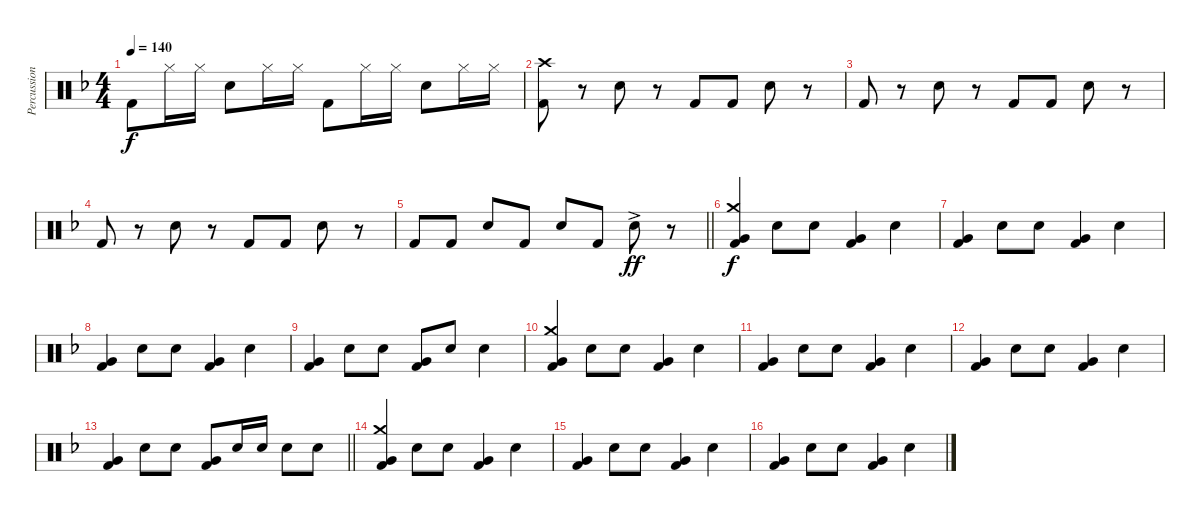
\track ("Percussion" "Percussion") {instrument percussion}
\staff {score}
\articulation defaults
\ts (4 4)
\tempo 140
\clef neutral
\ks dminor "Kick (hit) 2".8{dy f} "Hi-Hat (closed)".16 "Hi-Hat (closed)".16 "Snare (hit) 2".8 "Hi-Hat (closed)".16 "Hi-Hat (closed)".16 "Kick (hit) 2".8 "Hi-Hat (closed)".16 "Hi-Hat (closed)".16 "Snare (hit) 2".8 "Hi-Hat (closed)".16 "Hi-Hat (closed)".16
|
("Crash high (hit)" "Kick (hit) 2").8 r.8 "Snare (hit) 2".8 r.8 "Kick (hit) 2".8 "Kick (hit) 2".8 "Snare (hit) 2".8 r.8 |
"Kick (hit) 2".8 r.8 "Snare (hit) 2".8 r.8 "Kick (hit) 2".8 "Kick (hit) 2".8 "Snare (hit) 2".8 r.8 |
"Kick (hit) 2".8 r.8 "Snare (hit) 2".8 r.8 "Kick (hit) 2".8 "Kick (hit) 2".8 "Snare (hit) 2".8 r.8 |
\barLineRight lightlight "Kick (hit) 2".8 "Kick (hit) 2".8 "Snare (hit) 2".8 "Kick (hit) 2".8 "Snare (hit) 2".8 "Kick (hit) 2".8 "Snare (hit) 2"{ac}.8{dy ff}
r.8 |
("Crash medium (hit)" "Very Low Tom (hit)" "Kick (hit) 2").4{dy f} "Snare (hit) 2".8 "Snare (hit) 2".8 ("Very Low Tom (hit)" "Kick (hit) 2").4 "Snare (hit) 2".4 |
("Very Low Tom (hit)" "Kick (hit) 2").4 "Snare (hit) 2".8 "Snare (hit) 2".8 ("Very Low Tom (hit)" "Kick (hit) 2").4 "Snare (hit) 2".4 |
("Very Low Tom (hit)" "Kick (hit) 2").4 "Snare (hit) 2".8 "Snare (hit) 2".8 ("Very Low Tom (hit)" "Kick (hit) 2").4 "Snare (hit) 2".4 |
("Very Low Tom (hit)" "Kick (hit) 2").4 "Snare (hit) 2".8 "Snare (hit) 2".8 ("Very Low Tom (hit)" "Kick (hit) 2").8 "Snare (hit) 2".8 "Snare (hit) 2".4 |
("Crash medium (hit)" "Very Low Tom (hit)" "Kick (hit) 2").4 "Snare (hit) 2".8 "Snare (hit) 2".8 ("Very Low Tom (hit)" "Kick (hit) 2").4 "Snare (hit) 2".4 |
("Very Low Tom (hit)" "Kick (hit) 2").4 "Snare (hit) 2".8 "Snare (hit) 2".8 ("Very Low Tom (hit)" "Kick (hit) 2").4 "Snare (hit) 2".4 |
("Very Low Tom (hit)" "Kick (hit) 2").4 "Snare (hit) 2".8 "Snare (hit) 2".8 ("Very Low Tom (hit)" "Kick (hit) 2").4 "Snare (hit) 2".4 |
\barLineRight lightlight
("Very Low Tom (hit)" "Kick (hit) 2").4 "Snare (hit) 2".8 "Snare (hit) 2".8 ("Very Low Tom (hit)" "Kick (hit) 2").8 "Snare (hit) 2".16 "Snare (hit) 2".16 "Snare (hit) 2".8 "Snare (hit) 2".8 |
("Crash medium (hit)" "Very Low Tom (hit)" "Kick (hit) 2").4 "Snare (hit) 2".8 "Snare (hit) 2".8 ("Very Low Tom (hit)" "Kick (hit) 2").4 "Snare (hit) 2".4 |
("Very Low Tom (hit)" "Kick (hit) 2").4 "Snare (hit) 2".8 "Snare (hit) 2".8 ("Very Low Tom (hit)" "Kick (hit) 2").4 "Snare (hit) 2".4 |
("Very Low Tom (hit)" "Kick (hit) 2").4 "Snare (hit) 2".8 "Snare (hit) 2".8 ("Very Low Tom (hit)" "Kick (hit) 2").4 "Snare (hit) 2".4
